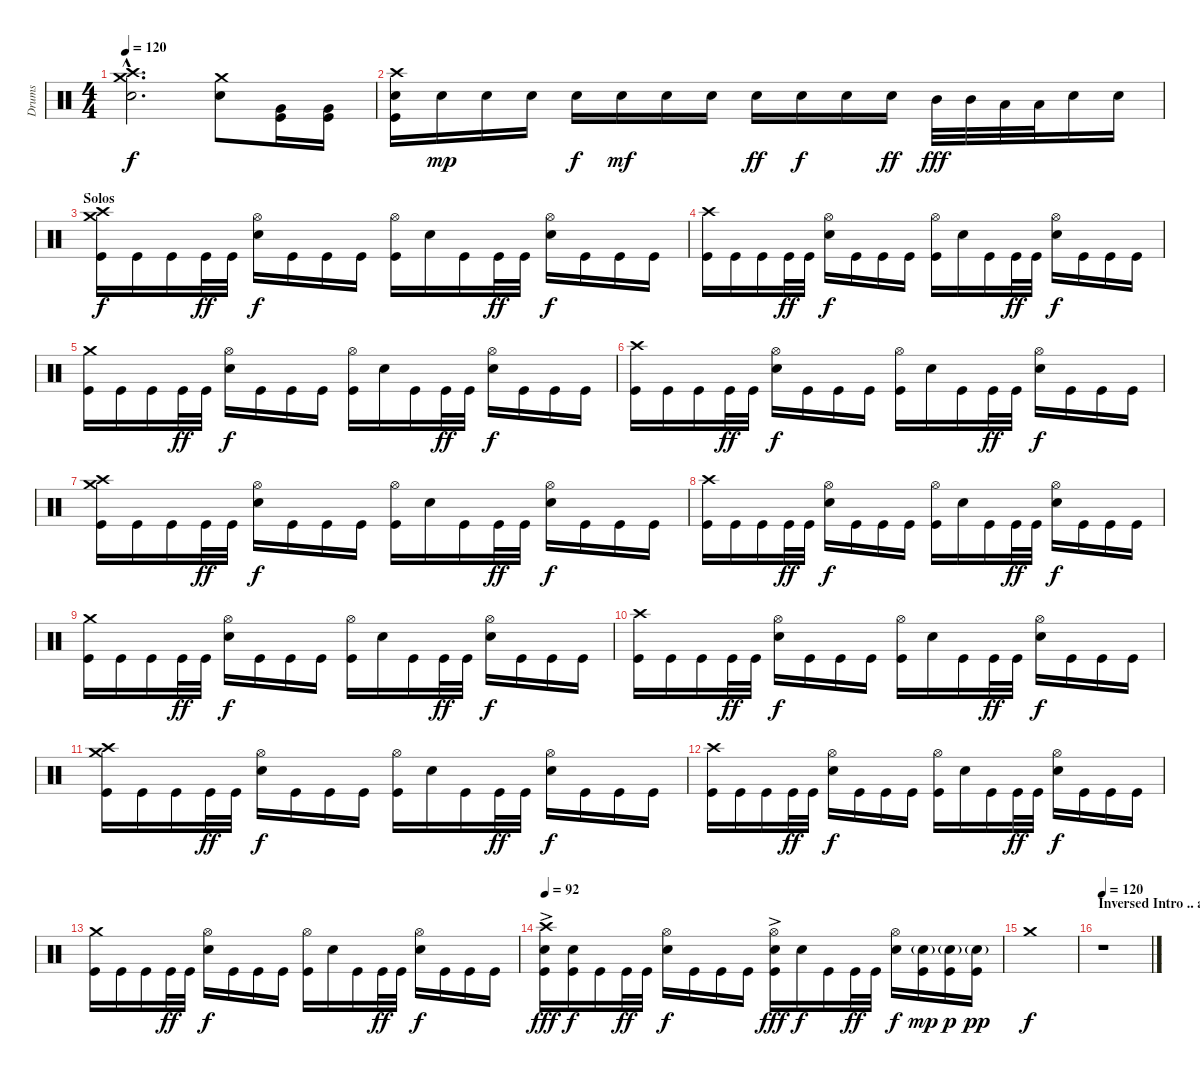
\track ("Drums" "Drums") {instrument percussion}
\staff {score}
\articulation defaults
\ts (4 4)
\tempo 120
\clef neutral
\ks c
("Crash medium (hit)"{hac} "Crash high (hit)"{hac} "Snare (hit) 2"{hac}).2{d dy f} ("Crash medium (hit)" "Snare (hit) 2").8 ("Very Low Tom (hit)" "Kick (hit)").16 ("Very Low Tom (hit)" "Kick (hit)").16 |
("Crash high (hit)" "Snare (hit) 2" "Kick (hit)").16 "Snare (hit) 2".16{dy mp} "Snare (hit) 2".16 "Snare (hit) 2".16 "Snare (hit) 2".16{dy f} "Snare (hit) 2".16{dy mf} "Snare (hit) 2".16 "Snare (hit) 2".16 "Snare (hit) 2".16{dy ff} "Snare (hit) 2".16{dy f} "Snare (hit) 2".16 "Snare (hit) 2".16{dy ff} "Mid Tom (hit)".32{dy fff} "Mid Tom (hit)".32 "Low Tom (hit)".32 "Low Tom (hit)".32 "Snare (hit) 2".16 "Snare (hit) 2".16 |
\section ("" "Solos ")
("Crash high (hit)" "Crash medium (hit)" "Kick (hit)").16{dy f} "Kick (hit)".16 "Kick (hit)".16 "Kick (hit)".32{dy ff} "Kick (hit)".32 ("Hi-Hat (open)" "Snare (hit) 2").16{dy f} "Kick (hit)".16 "Kick (hit)".16 "Kick (hit)".16 ("Hi-Hat (open)" "Kick (hit)").16 "Snare (hit) 2".16 "Kick (hit)".16 "Kick (hit)".32{dy ff} "Kick (hit)".32 ("Hi-Hat (open)" "Snare (hit) 2").16{dy f} "Kick (hit)".16 "Kick (hit)".16 "Kick (hit)".16 |
("Crash high (hit)" "Kick (hit)").16 "Kick (hit)".16 "Kick (hit)".16 "Kick (hit)".32{dy ff} "Kick (hit)".32 ("Hi-Hat (open)" "Snare (hit) 2").16{dy f} "Kick (hit)".16 "Kick (hit)".16 "Kick (hit)".16 ("Hi-Hat (open)" "Kick (hit)").16 "Snare (hit) 2".16 "Kick (hit)".16 "Kick (hit)".32{dy ff} "Kick (hit)".32 ("Hi-Hat (open)" "Snare (hit) 2").16{dy f} "Kick (hit)".16 "Kick (hit)".16 "Kick (hit)".16 |
("Crash medium (hit)" "Kick (hit)").16 "Kick (hit)".16 "Kick (hit)".16 "Kick (hit)".32{dy ff} "Kick (hit)".32 ("Hi-Hat (open)" "Snare (hit) 2").16{dy f} "Kick (hit)".16 "Kick (hit)".16 "Kick (hit)".16 ("Hi-Hat (open)" "Kick (hit)").16 "Snare (hit) 2".16 "Kick (hit)".16 "Kick (hit)".32{dy ff} "Kick (hit)".32 ("Hi-Hat (open)" "Snare (hit) 2").16{dy f} "Kick (hit)".16 "Kick (hit)".16 "Kick (hit)".16 |
("Crash high (hit)" "Kick (hit)").16 "Kick (hit)".16 "Kick (hit)".16 "Kick (hit)".32{dy ff} "Kick (hit)".32 ("Hi-Hat (open)" "Snare (hit) 2").16{dy f} "Kick (hit)".16 "Kick (hit)".16 "Kick (hit)".16 ("Hi-Hat (open)" "Kick (hit)").16 "Snare (hit) 2".16 "Kick (hit)".16 "Kick (hit)".32{dy ff} "Kick (hit)".32 ("Hi-Hat (open)" "Snare (hit) 2").16{dy f} "Kick (hit)".16 "Kick (hit)".16 "Kick (hit)".16 |
("Crash high (hit)" "Crash medium (hit)" "Kick (hit)").16 "Kick (hit)".16 "Kick (hit)".16 "Kick (hit)".32{dy ff} "Kick (hit)".32 ("Hi-Hat (open)" "Snare (hit) 2").16{dy f} "Kick (hit)".16 "Kick (hit)".16 "Kick (hit)".16 ("Hi-Hat (open)" "Kick (hit)").16 "Snare (hit) 2".16 "Kick (hit)".16 "Kick (hit)".32{dy ff} "Kick (hit)".32 ("Hi-Hat (open)" "Snare (hit) 2").16{dy f} "Kick (hit)".16 "Kick (hit)".16 "Kick (hit)".16 |
("Crash high (hit)" "Kick (hit)").16 "Kick (hit)".16 "Kick (hit)".16 "Kick (hit)".32{dy ff} "Kick (hit)".32 ("Hi-Hat (open)" "Snare (hit) 2").16{dy f} "Kick (hit)".16 "Kick (hit)".16 "Kick (hit)".16 ("Hi-Hat (open)" "Kick (hit)").16 "Snare (hit) 2".16 "Kick (hit)".16 "Kick (hit)".32{dy ff} "Kick (hit)".32 ("Hi-Hat (open)" "Snare (hit) 2").16{dy f} "Kick (hit)".16 "Kick (hit)".16 "Kick (hit)".16 |
("Crash medium (hit)" "Kick (hit)").16 "Kick (hit)".16 "Kick (hit)".16 "Kick (hit)".32{dy ff} "Kick (hit)".32 ("Hi-Hat (open)" "Snare (hit) 2").16{dy f} "Kick (hit)".16 "Kick (hit)".16 "Kick (hit)".16 ("Hi-Hat (open)" "Kick (hit)").16 "Snare (hit) 2".16 "Kick (hit)".16 "Kick (hit)".32{dy ff} "Kick (hit)".32 ("Hi-Hat (open)" "Snare (hit) 2").16{dy f} "Kick (hit)".16 "Kick (hit)".16 "Kick (hit)".16 |
("Crash high (hit)" "Kick (hit)").16 "Kick (hit)".16 "Kick (hit)".16 "Kick (hit)".32{dy ff} "Kick (hit)".32 ("Hi-Hat (open)" "Snare (hit) 2").16{dy f} "Kick (hit)".16 "Kick (hit)".16 "Kick (hit)".16 ("Hi-Hat (open)" "Kick (hit)").16 "Snare (hit) 2".16 "Kick (hit)".16 "Kick (hit)".32{dy ff} "Kick (hit)".32 ("Hi-Hat (open)" "Snare (hit) 2").16{dy f} "Kick (hit)".16 "Kick (hit)".16 "Kick (hit)".16 |
("Crash high (hit)" "Crash medium (hit)" "Kick (hit)").16 "Kick (hit)".16 "Kick (hit)".16 "Kick (hit)".32{dy ff} "Kick (hit)".32 ("Hi-Hat (open)" "Snare (hit) 2").16{dy f} "Kick (hit)".16 "Kick (hit)".16 "Kick (hit)".16 ("Hi-Hat (open)" "Kick (hit)").16 "Snare (hit) 2".16 "Kick (hit)".16 "Kick (hit)".32{dy ff} "Kick (hit)".32 ("Hi-Hat (open)" "Snare (hit) 2").16{dy f} "Kick (hit)".16 "Kick (hit)".16 "Kick (hit)".16 |
("Crash high (hit)" "Kick (hit)").16 "Kick (hit)".16 "Kick (hit)".16 "Kick (hit)".32{dy ff} "Kick (hit)".32 ("Hi-Hat (open)" "Snare (hit) 2").16{dy f} "Kick (hit)".16 "Kick (hit)".16 "Kick (hit)".16 ("Hi-Hat (open)" "Kick (hit)").16 "Snare (hit) 2".16 "Kick (hit)".16 "Kick (hit)".32{dy ff} "Kick (hit)".32 ("Hi-Hat (open)" "Snare (hit) 2").16{dy f} "Kick (hit)".16 "Kick (hit)".16 "Kick (hit)".16 |
("Crash medium (hit)" "Kick (hit)").16 "Kick (hit)".16 "Kick (hit)".16 "Kick (hit)".32{dy ff} "Kick (hit)".32 ("Hi-Hat (open)" "Snare (hit) 2").16{dy f} "Kick (hit)".16 "Kick (hit)".16 "Kick (hit)".16 ("Hi-Hat (open)" "Kick (hit)").16 "Snare (hit) 2".16 "Kick (hit)".16 "Kick (hit)".32{dy ff} "Kick (hit)".32 ("Hi-Hat (open)" "Snare (hit) 2").16{dy f} "Kick (hit)".16 "Kick (hit)".16 "Kick (hit)".16 |
\tempo 92
("Crash high (hit)" "Snare (hit) 2"{ac} "Kick (hit)").16{dy fff} ("Snare (hit) 2" "Kick (hit)").16{dy f} "Kick (hit)".16 "Kick (hit)".32{dy ff} "Kick (hit)".32 ("Hi-Hat (open)" "Snare (hit) 2").16{dy f} "Kick (hit)".16 "Kick (hit)".16 "Kick (hit)".16 ("Hi-Hat (open)" "Snare (hit) 2"{ac} "Kick (hit)").16{dy fff} "Snare (hit) 2".16{dy f} "Kick (hit)".16 "Kick (hit)".32{dy ff} "Kick (hit)".32 ("Hi-Hat (open)" "Snare (hit) 2").16{dy f} ("Snare (hit) 2"{g} "Kick (hit)").16{dy mp} ("Snare (hit) 2"{g} "Kick (hit)").16{dy p} ("Snare (hit) 2"{g} "Kick (hit)").16{dy pp} |
"Crash medium (hit)".1{dy f} |
\section ("" "Inversed Intro .. aka Outro")
\tempo 120
r.1
